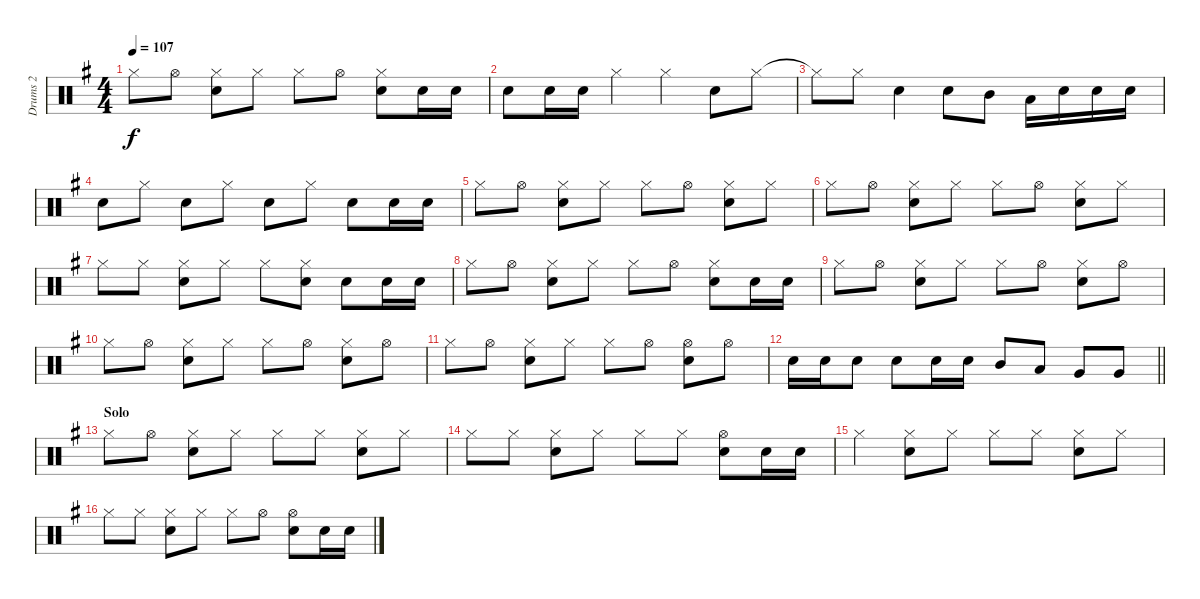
\track ("Drums 2" "Drums 2") {instrument percussion}
\staff {score}
\articulation defaults
\ts (4 4)
\tempo 107
\clef neutral
\ks g "Hi-Hat (closed)".8{dy f} "Hi-Hat (open)".8
("Hi-Hat (closed)" "Snare (hit) 2").8 "Hi-Hat (closed)".8 "Hi-Hat (closed)".8 "Hi-Hat (open)".8 ("Hi-Hat (closed)" "Snare (hit) 2").8 "Snare (hit) 2".16 "Snare (hit) 2".16 |
"Snare (hit) 2".8 "Snare (hit) 2".16 "Snare (hit) 2".16 "Hi-Hat (closed)".4 "Hi-Hat (closed)".4 "Snare (hit) 2".8 "Hi-Hat (closed)".8 |
"Hi-Hat (closed)"{t}.8 "Hi-Hat (closed)".8 "Snare (hit) 2".4 "Snare (hit) 2".8 "Mid Tom (hit)".8 "Low Tom (hit)".16 "Snare (hit) 2".16 "Snare (hit) 2".16 "Snare (hit) 2".16 |
"Snare (hit) 2".8 "Hi-Hat (closed)".8 "Snare (hit) 2".8 "Hi-Hat (closed)".8 "Snare (hit) 2".8 "Hi-Hat (closed)".8 "Snare (hit) 2".8 "Snare (hit) 2".16 "Snare (hit) 2".16 |
"Hi-Hat (closed)".8 "Hi-Hat (open)".8 ("Hi-Hat (closed)" "Snare (hit) 2").8 "Hi-Hat (closed)".8 "Hi-Hat (closed)".8 "Hi-Hat (open)".8 ("Snare (hit) 2" "Hi-Hat (closed)").8 "Hi-Hat (closed)".8 |
"Hi-Hat (closed)".8 "Hi-Hat (open)".8 ("Snare (hit) 2" "Hi-Hat (closed)").8 "Hi-Hat (closed)".8 "Hi-Hat (closed)".8 "Hi-Hat (open)".8 ("Hi-Hat (closed)" "Snare (hit) 2").8 "Hi-Hat (closed)".8 |
"Hi-Hat (closed)".8 "Hi-Hat (closed)".8 ("Snare (hit) 2" "Hi-Hat (closed)").8 "Hi-Hat (closed)".8 "Hi-Hat (closed)".8 ("Snare (hit) 2" "Hi-Hat (closed)").8 "Snare (hit) 2".8 "Snare (hit) 2".16 "Snare (hit) 2".16 |
"Hi-Hat (closed)".8 "Hi-Hat (open)".8 ("Snare (hit) 2" "Hi-Hat (closed)").8 "Hi-Hat (closed)".8 "Hi-Hat (closed)".8 "Hi-Hat (open)".8 ("Hi-Hat (closed)" "Snare (hit) 2").8 "Snare (hit) 2".16 "Snare (hit) 2".16 |
"Hi-Hat (closed)".8 "Hi-Hat (open)".8 ("Snare (hit) 2" "Hi-Hat (closed)").8 "Hi-Hat (closed)".8 "Hi-Hat (closed)".8 "Hi-Hat (open)".8 ("Hi-Hat (closed)" "Snare (hit) 2").8 "Hi-Hat (open)".8 |
"Hi-Hat (closed)".8 "Hi-Hat (open)".8 ("Snare (hit) 2" "Hi-Hat (closed)").8 "Hi-Hat (closed)".8 "Hi-Hat (closed)".8 "Hi-Hat (open)".8 ("Hi-Hat (closed)" "Snare (hit) 2").8 "Hi-Hat (open)".8 |
"Hi-Hat (closed)".8 "Hi-Hat (open)".8 ("Snare (hit) 2" "Hi-Hat (closed)").8 "Hi-Hat (closed)".8 "Hi-Hat (closed)".8 "Hi-Hat (open)".8 ("Hi-Hat (open)" "Snare (hit) 2").8 "Hi-Hat (open)".8 |
\barLineRight lightlight "Snare (hit) 2".16 "Snare (hit) 2".16 "Snare (hit) 2".8 "Snare (hit) 2".8 "Snare (hit) 2".16 "Snare (hit) 2".16 "Mid Tom (hit)".8 "Low Tom (hit)".8 "Very Low Tom (hit)".8 "Very Low Tom (hit)".8
|
\section ("" "Solo")
"Hi-Hat (closed)".8 "Hi-Hat (open)".8 ("Snare (hit) 2" "Hi-Hat (closed)").8 "Hi-Hat (closed)".8 "Hi-Hat (closed)".8 "Hi-Hat (closed)".8 ("Hi-Hat (closed)" "Snare (hit) 2").8 "Hi-Hat (closed)".8 |
"Hi-Hat (closed)".8 "Hi-Hat (closed)".8 ("Hi-Hat (closed)" "Snare (hit) 2").8 "Hi-Hat (closed)".8 "Hi-Hat (closed)".8 "Hi-Hat (closed)".8 ("Hi-Hat (open)" "Snare (hit) 2").8 "Snare (hit) 2".16 "Snare (hit) 2".16 |
"Hi-Hat (closed)".4 ("Hi-Hat (closed)" "Snare (hit) 2").8 "Hi-Hat (closed)".8 "Hi-Hat (closed)".8 "Hi-Hat (closed)".8 ("Hi-Hat (closed)" "Snare (hit) 2").8 "Hi-Hat (closed)".8 |
"Hi-Hat (closed)".8 "Hi-Hat (closed)".8 ("Hi-Hat (closed)" "Snare (hit) 2").8 "Hi-Hat (closed)".8 "Hi-Hat (closed)".8 "Hi-Hat (open)".8 ("Hi-Hat (open)" "Snare (hit) 2").8 "Snare (hit) 2".16 "Snare (hit) 2".16
